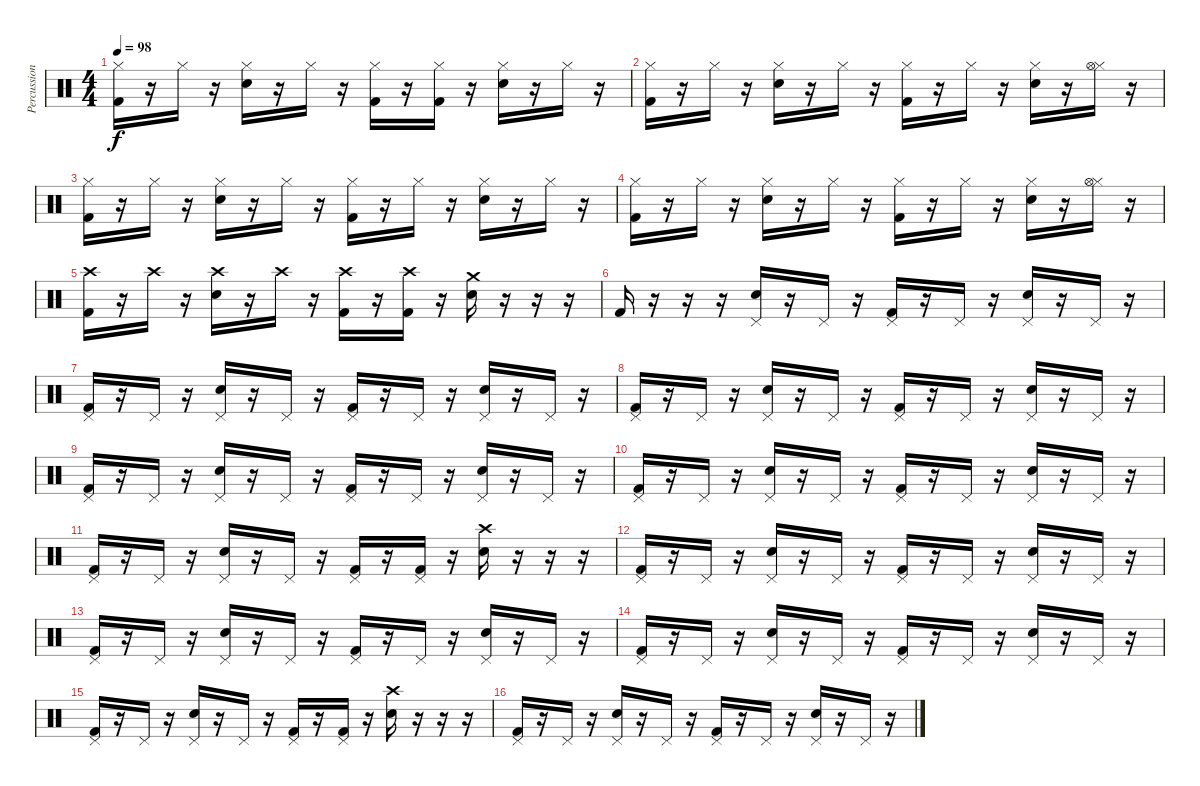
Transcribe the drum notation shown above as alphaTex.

\track ("Percussion" "Percussion") {instrument percussion}
\staff {score}
\articulation defaults
\ts (4 4)
\tempo 98
\clef neutral
\ks c
("Hi-Hat (closed)" "Kick (hit) 2").16{dy f} r.16 "Hi-Hat (closed)".16 r.16 ("Hi-Hat (closed)" "Electric Snare (hit)").16 r.16 "Hi-Hat (closed)".16 r.16 ("Hi-Hat (closed)" "Kick (hit) 2").16 r.16 ("Hi-Hat (closed)" "Kick (hit) 2").16 r.16 ("Hi-Hat (closed)" "Electric Snare (hit)").16 r.16 "Hi-Hat (closed)".16 r.16 |
("Hi-Hat (closed)" "Kick (hit) 2").16 r.16 "Hi-Hat (closed)".16 r.16 ("Hi-Hat (closed)" "Electric Snare (hit)").16 r.16 "Hi-Hat (closed)".16 r.16 ("Hi-Hat (closed)" "Kick (hit) 2").16 r.16 "Hi-Hat (closed)".16 r.16 ("Hi-Hat (closed)" "Electric Snare (hit)").16 r.16 ("Hi-Hat (closed)" "Hi-Hat (open)").16 r.16 |
("Hi-Hat (closed)" "Kick (hit) 2").16 r.16 "Hi-Hat (closed)".16 r.16 ("Hi-Hat (closed)" "Electric Snare (hit)").16 r.16 "Hi-Hat (closed)".16 r.16 ("Hi-Hat (closed)" "Kick (hit) 2").16 r.16 "Hi-Hat (closed)".16 r.16 ("Hi-Hat (closed)" "Electric Snare (hit)").16 r.16 "Hi-Hat (closed)".16 r.16 |
("Hi-Hat (closed)" "Kick (hit) 2").16 r.16 "Hi-Hat (closed)".16 r.16 ("Hi-Hat (closed)" "Electric Snare (hit)").16 r.16 "Hi-Hat (closed)".16 r.16 ("Hi-Hat (closed)" "Kick (hit) 2").16 r.16 "Hi-Hat (closed)".16 r.16 ("Hi-Hat (closed)" "Electric Snare (hit)").16 r.16 ("Hi-Hat (closed)" "Hi-Hat (open)").16 r.16 |
("Crash high (hit)" "Kick (hit) 2").16 r.16 "Crash high (hit)".16 r.16 ("Crash high (hit)" "Electric Snare (hit)").16 r.16 "Crash high (hit)".16 r.16 ("Crash high (hit)" "Kick (hit) 2").16 r.16 ("Crash high (hit)" "Kick (hit) 2").16 r.16 ("Crash medium (hit)" "Electric Snare (hit)").16 r.16 r.16 r.16 |
"Kick (hit) 2".16 r.16 r.16 r.16 ("Pedal Hi-Hat (hit)" "Snare (hit) 2").16 r.16 "Pedal Hi-Hat (hit)".16 r.16 ("Pedal Hi-Hat (hit)" "Kick (hit) 2").16 r.16 "Pedal Hi-Hat (hit)".16 r.16 ("Pedal Hi-Hat (hit)" "Snare (hit) 2").16 r.16 "Pedal Hi-Hat (hit)".16 r.16 |
("Pedal Hi-Hat (hit)" "Kick (hit) 2").16 r.16 "Pedal Hi-Hat (hit)".16 r.16 ("Pedal Hi-Hat (hit)" "Snare (hit) 2").16 r.16 "Pedal Hi-Hat (hit)".16 r.16 ("Pedal Hi-Hat (hit)" "Kick (hit) 2").16 r.16 "Pedal Hi-Hat (hit)".16 r.16 ("Pedal Hi-Hat (hit)" "Snare (hit) 2").16 r.16 "Pedal Hi-Hat (hit)".16 r.16 |
("Pedal Hi-Hat (hit)" "Kick (hit) 2").16 r.16 "Pedal Hi-Hat (hit)".16 r.16 ("Pedal Hi-Hat (hit)" "Snare (hit) 2").16 r.16 "Pedal Hi-Hat (hit)".16 r.16 ("Pedal Hi-Hat (hit)" "Kick (hit) 2").16 r.16 "Pedal Hi-Hat (hit)".16 r.16 ("Pedal Hi-Hat (hit)" "Snare (hit) 2").16 r.16 "Pedal Hi-Hat (hit)".16 r.16 |
("Pedal Hi-Hat (hit)" "Kick (hit) 2").16 r.16 "Pedal Hi-Hat (hit)".16 r.16 ("Pedal Hi-Hat (hit)" "Snare (hit) 2").16 r.16 "Pedal Hi-Hat (hit)".16 r.16 ("Pedal Hi-Hat (hit)" "Kick (hit) 2").16 r.16 "Pedal Hi-Hat (hit)".16 r.16 ("Pedal Hi-Hat (hit)" "Snare (hit) 2").16 r.16 "Pedal Hi-Hat (hit)".16 r.16 |
("Pedal Hi-Hat (hit)" "Kick (hit) 2").16 r.16 "Pedal Hi-Hat (hit)".16 r.16 ("Pedal Hi-Hat (hit)" "Snare (hit) 2").16 r.16 "Pedal Hi-Hat (hit)".16 r.16 ("Pedal Hi-Hat (hit)" "Kick (hit) 2").16 r.16 "Pedal Hi-Hat (hit)".16 r.16 ("Pedal Hi-Hat (hit)" "Snare (hit) 2").16 r.16 "Pedal Hi-Hat (hit)".16 r.16 |
("Pedal Hi-Hat (hit)" "Kick (hit) 2").16 r.16 "Pedal Hi-Hat (hit)".16 r.16 ("Pedal Hi-Hat (hit)" "Snare (hit) 2").16 r.16 "Pedal Hi-Hat (hit)".16 r.16 ("Pedal Hi-Hat (hit)" "Kick (hit) 2").16 r.16 ("Pedal Hi-Hat (hit)" "Kick (hit) 2").16 r.16 ("Crash high (hit)" "Snare (hit) 2").16 r.16 r.16 r.16 |
("Pedal Hi-Hat (hit)" "Kick (hit) 2").16 r.16 "Pedal Hi-Hat (hit)".16 r.16 ("Pedal Hi-Hat (hit)" "Snare (hit) 2").16 r.16 "Pedal Hi-Hat (hit)".16 r.16 ("Pedal Hi-Hat (hit)" "Kick (hit) 2").16 r.16 "Pedal Hi-Hat (hit)".16 r.16 ("Pedal Hi-Hat (hit)" "Snare (hit) 2").16 r.16 "Pedal Hi-Hat (hit)".16 r.16 |
("Pedal Hi-Hat (hit)" "Kick (hit) 2").16 r.16 "Pedal Hi-Hat (hit)".16 r.16 ("Pedal Hi-Hat (hit)" "Snare (hit) 2").16 r.16 "Pedal Hi-Hat (hit)".16 r.16 ("Pedal Hi-Hat (hit)" "Kick (hit) 2").16 r.16 "Pedal Hi-Hat (hit)".16 r.16 ("Pedal Hi-Hat (hit)" "Snare (hit) 2").16 r.16 "Pedal Hi-Hat (hit)".16 r.16 |
("Pedal Hi-Hat (hit)" "Kick (hit) 2").16 r.16 "Pedal Hi-Hat (hit)".16 r.16 ("Pedal Hi-Hat (hit)" "Snare (hit) 2").16 r.16 "Pedal Hi-Hat (hit)".16 r.16 ("Pedal Hi-Hat (hit)" "Kick (hit) 2").16 r.16 "Pedal Hi-Hat (hit)".16 r.16 ("Pedal Hi-Hat (hit)" "Snare (hit) 2").16 r.16 "Pedal Hi-Hat (hit)".16 r.16 |
("Pedal Hi-Hat (hit)" "Kick (hit) 2").16 r.16 "Pedal Hi-Hat (hit)".16 r.16 ("Pedal Hi-Hat (hit)" "Snare (hit) 2").16 r.16 "Pedal Hi-Hat (hit)".16 r.16 ("Pedal Hi-Hat (hit)" "Kick (hit) 2").16 r.16 ("Pedal Hi-Hat (hit)" "Kick (hit) 2").16 r.16 ("Crash high (hit)" "Snare (hit) 2").16 r.16 r.16 r.16 |
("Pedal Hi-Hat (hit)" "Kick (hit) 2").16 r.16 "Pedal Hi-Hat (hit)".16 r.16 ("Pedal Hi-Hat (hit)" "Snare (hit) 2").16 r.16 "Pedal Hi-Hat (hit)".16 r.16 ("Pedal Hi-Hat (hit)" "Kick (hit) 2").16 r.16 "Pedal Hi-Hat (hit)".16 r.16 ("Pedal Hi-Hat (hit)" "Snare (hit) 2").16 r.16 "Pedal Hi-Hat (hit)".16 r.16
